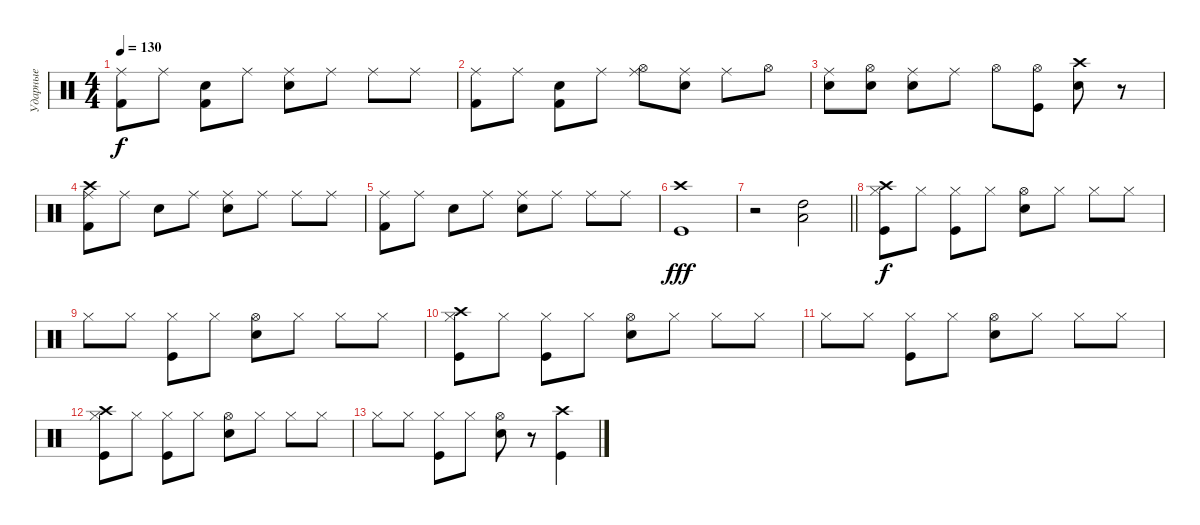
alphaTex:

\track ("Ударные" "Ударные") {instrument percussion}
\staff {score}
\articulation defaults
\ts (4 4)
\tempo 130
\clef neutral
\ks c
("Ride (middle)" "Kick (hit) 2").8{dy f} "Ride (middle)".8 ("Snare (hit)" "Kick (hit) 2").8 "Ride (middle)".8 ("Ride (middle)" "Electric Snare (hit)").8 "Ride (middle)".8 "Ride (middle)".8 "Ride (middle)".8 |
("Ride (middle)" "Kick (hit) 2").8 "Ride (middle)".8 ("Snare (hit)" "Kick (hit) 2").8 "Ride (middle)".8 ("Ride (middle)" "Hi-Hat (open)").8 ("Electric Snare (hit)" "Ride (middle)").8 "Ride (middle)".8 "Hi-Hat (open)".8 |
("Electric Snare (hit)" "Ride (middle)").8 ("Electric Snare (hit)" "Hi-Hat (open)").8 ("Electric Snare (hit)" "Ride (middle)").8 "Ride (middle)".8 "Hi-Hat (open)".8 ("Kick (hit)" "Hi-Hat (open)").8 ("Electric Snare (hit)" "Crash high (hit)").8 r.8 |
("Crash high (hit)" "Ride (middle)" "Kick (hit) 2").8 "Ride (middle)".8 "Snare (hit)".8 "Ride (middle)".8 ("Ride (middle)" "Electric Snare (hit)").8 "Ride (middle)".8 "Ride (middle)".8 "Ride (middle)".8 |
("Ride (middle)" "Kick (hit) 2").8 "Ride (middle)".8 "Snare (hit)".8 "Ride (middle)".8 ("Ride (middle)" "Electric Snare (hit)").8 "Ride (middle)".8 "Ride (middle)".8 "Ride (middle)".8 |
("Crash high (hit)" "Kick (hit)").1{dy fff} |
\barLineRight lightlight
r.2 ("High Tom (hit)" "Low Tom (hit)").2 |
("Crash high (hit)" "Hi-Hat (closed)" "Kick (hit)").8{dy f} "Hi-Hat (closed)".8 ("Hi-Hat (closed)" "Kick (hit)").8 "Hi-Hat (closed)".8 ("Hi-Hat (open)" "Snare (hit) 2").8 "Hi-Hat (closed)".8 "Hi-Hat (closed)".8 "Hi-Hat (closed)".8 |
"Hi-Hat (closed)".8 "Hi-Hat (closed)".8 ("Hi-Hat (closed)" "Kick (hit)").8 "Hi-Hat (closed)".8 ("Hi-Hat (open)" "Snare (hit) 2").8 "Hi-Hat (closed)".8 "Hi-Hat (closed)".8 "Hi-Hat (closed)".8 |
("Crash high (hit)" "Hi-Hat (closed)" "Kick (hit)").8 "Hi-Hat (closed)".8 ("Hi-Hat (closed)" "Kick (hit)").8 "Hi-Hat (closed)".8 ("Hi-Hat (open)" "Snare (hit) 2").8 "Hi-Hat (closed)".8 "Hi-Hat (closed)".8 "Hi-Hat (closed)".8 |
"Hi-Hat (closed)".8 "Hi-Hat (closed)".8 ("Hi-Hat (closed)" "Kick (hit)").8 "Hi-Hat (closed)".8 ("Hi-Hat (open)" "Snare (hit) 2").8 "Hi-Hat (closed)".8 "Hi-Hat (closed)".8 "Hi-Hat (closed)".8 |
("Crash high (hit)" "Hi-Hat (closed)" "Kick (hit)").8 "Hi-Hat (closed)".8 ("Hi-Hat (closed)" "Kick (hit)").8 "Hi-Hat (closed)".8 ("Hi-Hat (open)" "Snare (hit) 2").8 "Hi-Hat (closed)".8 "Hi-Hat (closed)".8 "Hi-Hat (closed)".8 |
"Hi-Hat (closed)".8 "Hi-Hat (closed)".8 ("Hi-Hat (closed)" "Kick (hit)").8 "Hi-Hat (closed)".8 ("Hi-Hat (open)" "Snare (hit) 2").8 r.8 ("Crash high (hit)" "Kick (hit)").4
